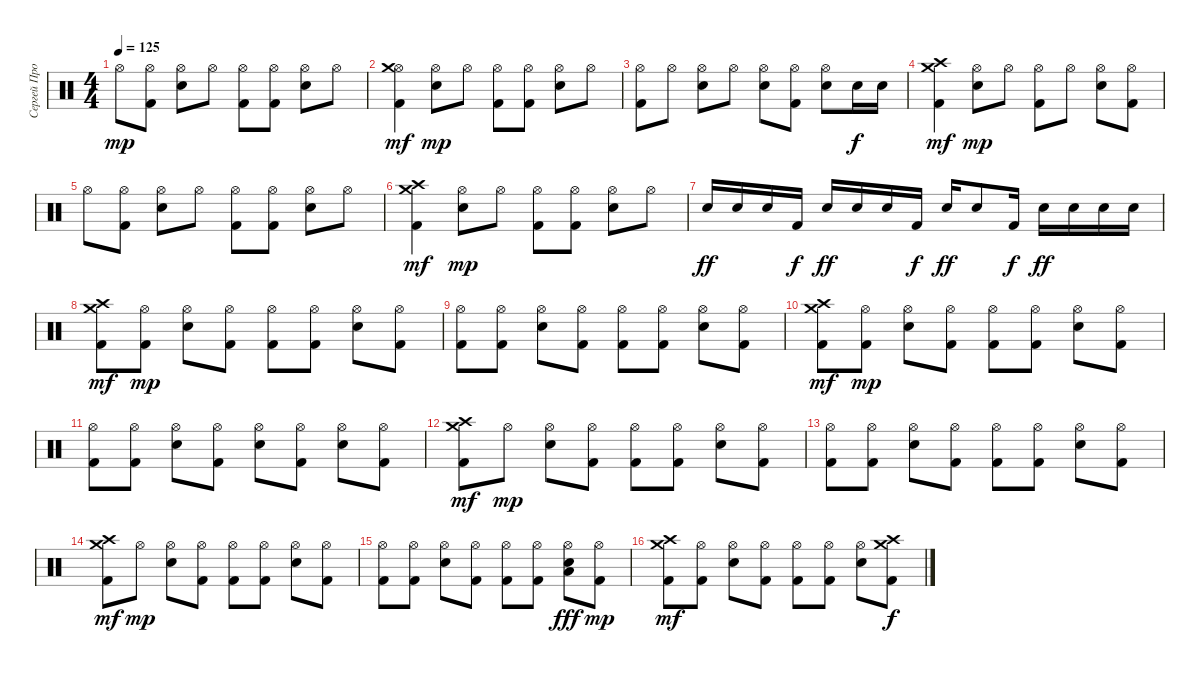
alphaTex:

\track ("Сергей Прокофьев (Percussion)" "Сергей Про") {instrument percussion}
\staff {score}
\articulation defaults
\ts (4 4)
\tempo 125
\clef neutral
\ks c "Hi-Hat (open)".8{dy mp}
("Hi-Hat (open)" "Kick (hit) 2").8 ("Hi-Hat (open)" "Snare (hit) 2").8 "Hi-Hat (open)".8 ("Hi-Hat (open)" "Kick (hit) 2").8 ("Hi-Hat (open)" "Kick (hit) 2").8 ("Hi-Hat (open)" "Snare (hit) 2").8 "Hi-Hat (open)".8 |
("Hi-Hat (open)" "Crash medium (hit)" "Kick (hit) 2").4{dy mf} ("Hi-Hat (open)" "Snare (hit) 2").8{dy mp} "Hi-Hat (open)".8 ("Hi-Hat (open)" "Kick (hit) 2").8 ("Hi-Hat (open)" "Kick (hit) 2").8 ("Hi-Hat (open)" "Snare (hit) 2").8 "Hi-Hat (open)".8 |
("Hi-Hat (open)" "Kick (hit) 2").8 "Hi-Hat (open)".8 ("Hi-Hat (open)" "Snare (hit) 2").8 "Hi-Hat (open)".8 ("Hi-Hat (open)" "Snare (hit) 2").8 ("Hi-Hat (open)" "Kick (hit) 2").8 ("Hi-Hat (open)" "Snare (hit) 2").8 "Snare (hit) 2".16{dy f} "Snare (hit) 2".16 |
("Crash high (hit)" "Crash medium (hit)" "Kick (hit) 2").4{dy mf} ("Hi-Hat (open)" "Snare (hit) 2").8{dy mp} "Hi-Hat (open)".8 ("Hi-Hat (open)" "Kick (hit) 2").8 "Hi-Hat (open)".8 ("Hi-Hat (open)" "Snare (hit) 2").8 ("Hi-Hat (open)" "Kick (hit) 2").8 |
"Hi-Hat (open)".8 ("Hi-Hat (open)" "Kick (hit) 2").8 ("Hi-Hat (open)" "Snare (hit) 2").8 "Hi-Hat (open)".8 ("Hi-Hat (open)" "Kick (hit) 2").8 ("Hi-Hat (open)" "Kick (hit) 2").8 ("Hi-Hat (open)" "Snare (hit) 2").8 "Hi-Hat (open)".8 |
("Crash high (hit)" "Crash medium (hit)" "Kick (hit) 2").4{dy mf} ("Hi-Hat (open)" "Snare (hit) 2").8{dy mp} "Hi-Hat (open)".8 ("Hi-Hat (open)" "Kick (hit) 2").8 ("Hi-Hat (open)" "Kick (hit) 2").8 ("Hi-Hat (open)" "Snare (hit) 2").8 "Hi-Hat (open)".8 |
\section ("" "")
"Snare (hit) 2".16{dy ff volume 16} "Snare (hit) 2".16 "Snare (hit) 2".16 "Kick (hit) 2".16{dy f} "Snare (hit) 2".16{dy ff} "Snare (hit) 2".16 "Snare (hit) 2".16 "Kick (hit) 2".16{dy f} "Snare (hit) 2".16{dy ff} "Snare (hit) 2".8 "Kick (hit) 2".16{dy f} "Snare (hit) 2".16{dy ff} "Snare (hit) 2".16 "Snare (hit) 2".16 "Snare (hit) 2".16 |
("Crash high (hit)" "Crash medium (hit)" "Kick (hit) 2").8{dy mf} ("Hi-Hat (open)" "Kick (hit) 2").8{dy mp} ("Hi-Hat (open)" "Snare (hit) 2").8 ("Hi-Hat (open)" "Kick (hit) 2").8 ("Hi-Hat (open)" "Kick (hit) 2").8 ("Hi-Hat (open)" "Kick (hit) 2").8 ("Hi-Hat (open)" "Snare (hit) 2").8 ("Hi-Hat (open)" "Kick (hit) 2").8 |
("Hi-Hat (open)" "Kick (hit) 2").8 ("Hi-Hat (open)" "Kick (hit) 2").8 ("Hi-Hat (open)" "Snare (hit) 2").8 ("Hi-Hat (open)" "Kick (hit) 2").8 ("Hi-Hat (open)" "Kick (hit) 2").8 ("Hi-Hat (open)" "Kick (hit) 2").8 ("Hi-Hat (open)" "Snare (hit) 2").8 ("Hi-Hat (open)" "Kick (hit) 2").8 |
("Crash high (hit)" "Crash medium (hit)" "Kick (hit) 2").8{dy mf} ("Hi-Hat (open)" "Kick (hit) 2").8{dy mp} ("Hi-Hat (open)" "Snare (hit) 2").8 ("Hi-Hat (open)" "Kick (hit) 2").8 ("Hi-Hat (open)" "Kick (hit) 2").8 ("Hi-Hat (open)" "Kick (hit) 2").8 ("Hi-Hat (open)" "Snare (hit) 2").8 ("Hi-Hat (open)" "Kick (hit) 2").8 |
("Hi-Hat (open)" "Kick (hit) 2").8 ("Hi-Hat (open)" "Kick (hit) 2").8 ("Hi-Hat (open)" "Snare (hit) 2").8 ("Hi-Hat (open)" "Kick (hit) 2").8 ("Hi-Hat (open)" "Snare (hit) 2").8 ("Hi-Hat (open)" "Kick (hit) 2").8 ("Hi-Hat (open)" "Snare (hit) 2").8 ("Hi-Hat (open)" "Kick (hit) 2").8 |
("Crash high (hit)" "Crash medium (hit)" "Kick (hit) 2").8{dy mf} "Hi-Hat (open)".8{dy mp} ("Hi-Hat (open)" "Snare (hit) 2").8 ("Hi-Hat (open)" "Kick (hit) 2").8 ("Hi-Hat (open)" "Kick (hit) 2").8 ("Hi-Hat (open)" "Kick (hit) 2").8 ("Hi-Hat (open)" "Snare (hit) 2").8 ("Hi-Hat (open)" "Kick (hit) 2").8 |
("Hi-Hat (open)" "Kick (hit) 2").8 ("Hi-Hat (open)" "Kick (hit) 2").8 ("Hi-Hat (open)" "Snare (hit) 2").8 ("Hi-Hat (open)" "Kick (hit) 2").8 ("Hi-Hat (open)" "Kick (hit) 2").8 ("Hi-Hat (open)" "Kick (hit) 2").8 ("Hi-Hat (open)" "Snare (hit) 2").8 ("Hi-Hat (open)" "Kick (hit) 2").8 |
("Crash high (hit)" "Crash medium (hit)" "Kick (hit) 2").8{dy mf} "Hi-Hat (open)".8{dy mp} ("Hi-Hat (open)" "Snare (hit) 2").8 ("Hi-Hat (open)" "Kick (hit) 2").8 ("Hi-Hat (open)" "Kick (hit) 2").8 ("Hi-Hat (open)" "Kick (hit) 2").8 ("Hi-Hat (open)" "Snare (hit) 2").8 ("Hi-Hat (open)" "Kick (hit) 2").8 |
("Hi-Hat (open)" "Kick (hit) 2").8 ("Hi-Hat (open)" "Kick (hit) 2").8 ("Hi-Hat (open)" "Snare (hit) 2").8 ("Hi-Hat (open)" "Kick (hit) 2").8 ("Hi-Hat (open)" "Kick (hit) 2").8 ("Hi-Hat (open)" "Kick (hit) 2").8 ("Hi-Hat (open)" "Snare (hit) 2" "Low Floor Tom (hit)").8{dy fff} ("Hi-Hat (open)" "Kick (hit) 2").8{dy mp} |
("Crash high (hit)" "Crash medium (hit)" "Kick (hit) 2").8{dy mf} ("Hi-Hat (open)" "Kick (hit) 2").8 ("Hi-Hat (open)" "Snare (hit) 2").8 ("Hi-Hat (open)" "Kick (hit) 2").8 ("Hi-Hat (open)" "Kick (hit) 2").8 ("Hi-Hat (open)" "Kick (hit) 2").8 ("Hi-Hat (open)" "Snare (hit) 2").8 ("Crash medium (hit)" "Crash high (hit)" "Kick (hit) 2").8{dy f}
